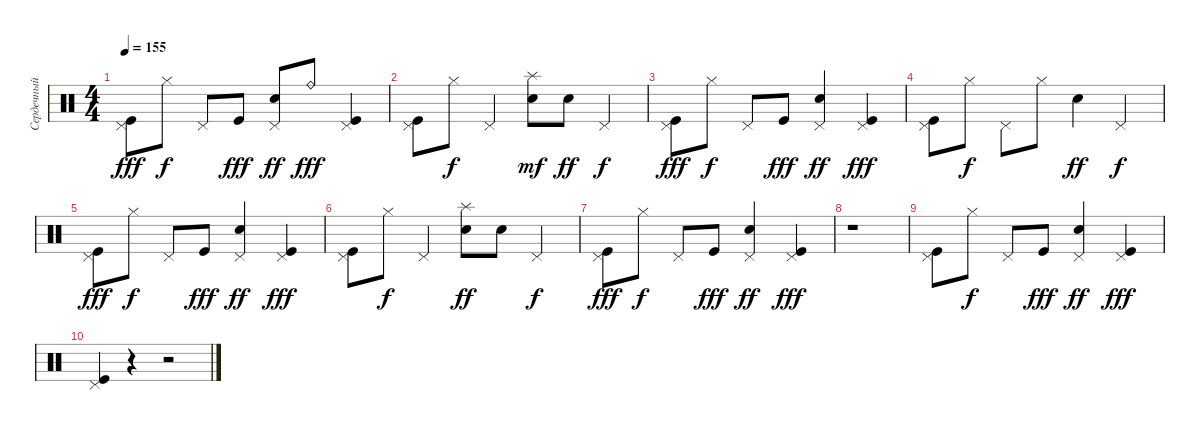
\track ("Сердечный (Ударные)" "Сердечный ") {instrument percussion}
\staff {score}
\articulation defaults
\ts (4 4)
\tempo 155
\clef neutral
\ks c
("Pedal Hi-Hat (hit)" "Kick (hit)").8{dy fff} "Hi-Hat (closed)".8{dy f} "Pedal Hi-Hat (hit)".8 "Kick (hit)".8{dy fff} ("Electric Snare (hit)" "Pedal Hi-Hat (hit)").8{dy ff} "Ride (bell)".8{dy fff} ("Pedal Hi-Hat (hit)" "Kick (hit)").4 |
("Pedal Hi-Hat (hit)" "Kick (hit)").8 "Hi-Hat (closed)".8{dy f} "Pedal Hi-Hat (hit)".4 ("Electric Snare (hit)" "Splash (hit)").8{dy mf} "Electric Snare (hit)".8{dy ff} "Pedal Hi-Hat (hit)".4{dy f} |
("Kick (hit)" "Pedal Hi-Hat (hit)").8{dy fff} "Hi-Hat (closed)".8{dy f} "Pedal Hi-Hat (hit)".8 "Kick (hit)".8{dy fff} ("Electric Snare (hit)" "Pedal Hi-Hat (hit)").4{dy ff} ("Kick (hit)" "Pedal Hi-Hat (hit)").4{dy fff} |
("Pedal Hi-Hat (hit)" "Kick (hit)").8 "Hi-Hat (closed)".8{dy f} "Pedal Hi-Hat (hit)".8 "Hi-Hat (closed)".8 "Electric Snare (hit)".4{dy ff} "Pedal Hi-Hat (hit)".4{dy f} |
("Kick (hit)" "Pedal Hi-Hat (hit)").8{dy fff} "Hi-Hat (closed)".8{dy f} "Pedal Hi-Hat (hit)".8 "Kick (hit)".8{dy fff} ("Pedal Hi-Hat (hit)" "Electric Snare (hit)").4{dy ff} ("Pedal Hi-Hat (hit)" "Kick (hit)").4{dy fff} |
("Kick (hit)" "Pedal Hi-Hat (hit)").8 "Hi-Hat (closed)".8{dy f} "Pedal Hi-Hat (hit)".4 ("Splash (hit)" "Electric Snare (hit)").8{dy ff} "Electric Snare (hit)".8 "Pedal Hi-Hat (hit)".4{dy f} |
("Kick (hit)" "Pedal Hi-Hat (hit)").8{dy fff} "Hi-Hat (closed)".8{dy f} "Pedal Hi-Hat (hit)".8 "Kick (hit)".8{dy fff} ("Electric Snare (hit)" "Pedal Hi-Hat (hit)").4{dy ff} ("Kick (hit)" "Pedal Hi-Hat (hit)").4{dy fff} |
r.1 |
("Kick (hit)" "Pedal Hi-Hat (hit)").8 "Hi-Hat (closed)".8{dy f} "Pedal Hi-Hat (hit)".8 "Kick (hit)".8{dy fff} ("Pedal Hi-Hat (hit)" "Electric Snare (hit)").4{dy ff} ("Pedal Hi-Hat (hit)" "Kick (hit)").4{dy fff} |
("Kick (hit)" "Pedal Hi-Hat (hit)").4 r.4 r.2
